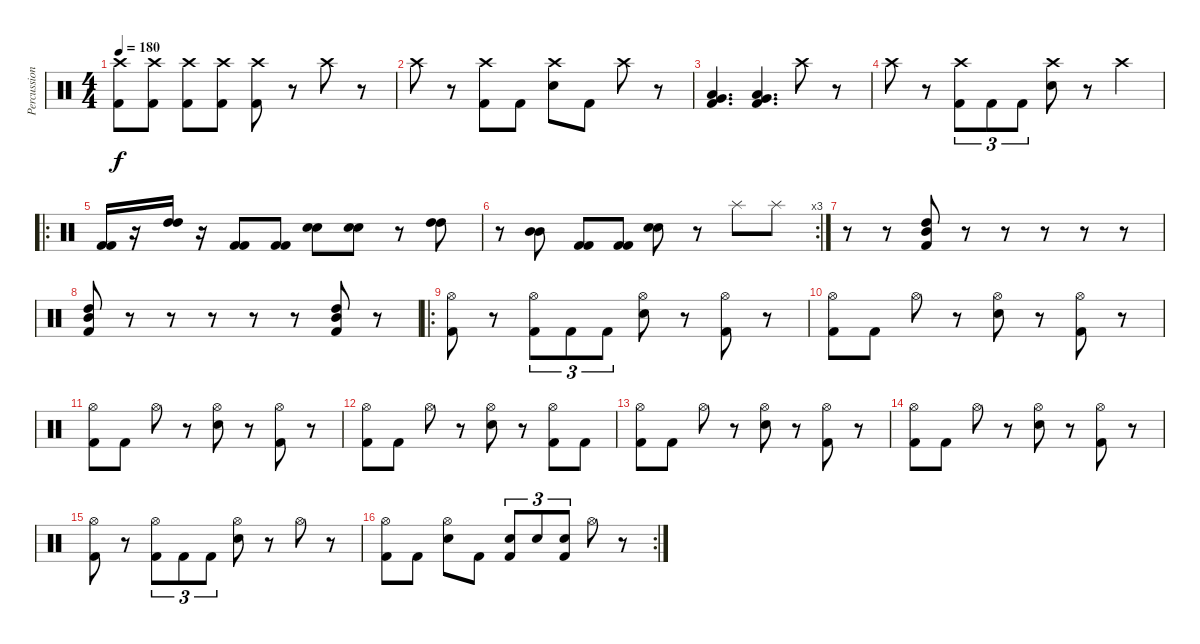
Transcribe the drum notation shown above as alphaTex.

\track ("Percussion" "Percussion") {instrument percussion}
\staff {score}
\articulation defaults
\ts (4 4)
\tempo 180
\clef neutral
\ks c
("Crash high (hit)" "Kick (hit) 2").8{dy f} ("Crash high (hit)" "Kick (hit) 2").8 ("Crash high (hit)" "Kick (hit) 2").8 ("Crash high (hit)" "Kick (hit) 2").8 ("Crash high (hit)" "Kick (hit) 2").8 r.8 "Crash high (hit)".8 r.8 |
"Crash high (hit)".8 r.8 ("Crash high (hit)" "Kick (hit) 2").8 "Kick (hit) 2".8 ("Crash high (hit)" "Snare (hit) 2").8 "Kick (hit) 2".8 "Crash high (hit)".8 r.8 |
("Very Low Tom (hit)" "Low Floor Tom (hit)" "Kick (hit) 2").4{d} ("Very Low Tom (hit)" "Low Floor Tom (hit)" "Kick (hit) 2").4{d} "Crash high (hit)".8 r.8 |
"Crash high (hit)".8 r.8 ("Crash high (hit)" "Kick (hit) 2").8{tu (3 2)} "Kick (hit) 2".8{tu (3 2)} "Kick (hit) 2".8{tu (3 2)} ("Crash high (hit)" "Snare (hit) 2").8 r.8 "Crash high (hit)".4 |
\ro
("Kick (hit) 2" "Kick (hit) 2").16 r.16 ("High Tom (hit)" "High Tom (hit)").16 r.16 ("Kick (hit) 2" "Kick (hit) 2").8 ("Kick (hit) 2" "Kick (hit) 2").8 ("Snare (hit) 2" "Snare (hit) 2").8 ("Snare (hit) 2" "Snare (hit) 2").8 r.8 ("High Tom (hit)" "High Tom (hit)").8 |
\rc 3
r.8 ("Mid Tom (hit)" "Mid Tom (hit)").8 ("Kick (hit) 2" "Kick (hit) 2").8 ("Kick (hit) 2" "Kick (hit) 2").8 ("Snare (hit) 2" "Snare (hit) 2").8 r.8 "Splash (hit)".8 "Splash (hit)".8 |
r.8 r.8 ("High Tom (hit)" "Mid Tom (hit)" "Kick (hit) 2").8 r.8 r.8 r.8 r.8 r.8 |
("High Tom (hit)" "Mid Tom (hit)" "Kick (hit) 2").8 r.8 r.8 r.8 r.8 r.8 ("High Tom (hit)" "Mid Tom (hit)" "Kick (hit) 2").8 r.8 |
\ro
("Hi-Hat (open)" "Kick (hit) 2").8 r.8 ("Hi-Hat (open)" "Kick (hit) 2").8{tu (3 2)} "Kick (hit) 2".8{tu (3 2)} "Kick (hit) 2".8{tu (3 2)} ("Hi-Hat (open)" "Snare (hit) 2").8 r.8 ("Hi-Hat (open)" "Kick (hit) 2").8 r.8 |
("Hi-Hat (open)" "Kick (hit) 2").8 "Kick (hit) 2".8 "Hi-Hat (open)".8 r.8 ("Hi-Hat (open)" "Snare (hit) 2").8 r.8 ("Hi-Hat (open)" "Kick (hit) 2").8 r.8 |
("Hi-Hat (open)" "Kick (hit) 2").8 "Kick (hit) 2".8 "Hi-Hat (open)".8 r.8 ("Hi-Hat (open)" "Snare (hit) 2").8 r.8 ("Hi-Hat (open)" "Kick (hit) 2").8 r.8 |
("Hi-Hat (open)" "Kick (hit) 2").8 "Kick (hit) 2".8 "Hi-Hat (open)".8 r.8 ("Hi-Hat (open)" "Snare (hit) 2").8 r.8 ("Hi-Hat (open)" "Kick (hit) 2").8 "Kick (hit) 2".8 |
("Hi-Hat (open)" "Kick (hit) 2").8 "Kick (hit) 2".8 "Hi-Hat (open)".8 r.8 ("Hi-Hat (open)" "Snare (hit) 2").8 r.8 ("Hi-Hat (open)" "Kick (hit) 2").8 r.8 |
("Hi-Hat (open)" "Kick (hit) 2").8 "Kick (hit) 2".8 "Hi-Hat (open)".8 r.8 ("Hi-Hat (open)" "Snare (hit) 2").8 r.8 ("Hi-Hat (open)" "Kick (hit) 2").8 r.8 |
("Hi-Hat (open)" "Kick (hit) 2").8 r.8 ("Hi-Hat (open)" "Kick (hit) 2").8{tu (3 2)} "Kick (hit) 2".8{tu (3 2)} "Kick (hit) 2".8{tu (3 2)} ("Hi-Hat (open)" "Snare (hit) 2").8 r.8 "Hi-Hat (open)".8 r.8 |
\rc 2
("Hi-Hat (open)" "Kick (hit) 2").8 "Kick (hit) 2".8 ("Hi-Hat (open)" "Snare (hit) 2").8 "Kick (hit) 2".8 ("Snare (hit) 2" "Kick (hit) 2").8{tu (3 2)} "Snare (hit) 2".8{tu (3 2)} ("Snare (hit) 2" "Kick (hit) 2").8{tu (3 2)} "Hi-Hat (open)".8 r.8
